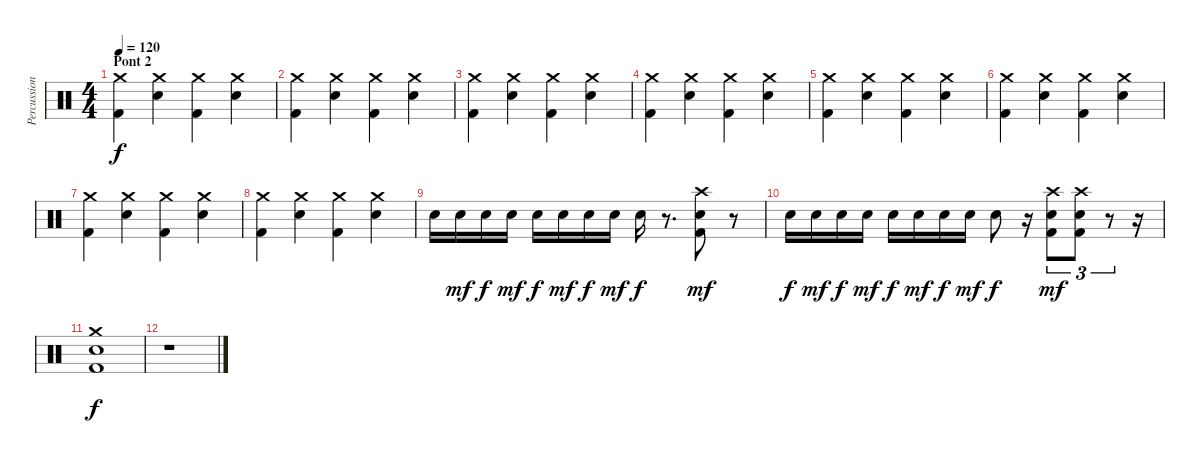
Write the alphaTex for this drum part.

\track ("Percussions" "Percussion") {instrument percussion}
\staff
\articulation defaults
\ts (4 4)
\section ("" "Pont 2")
\tempo 120
\clef neutral
\ks c
("Crash medium (hit)" "Kick (hit) 2").4{dy f} ("Crash medium (hit)" "Electric Snare (hit)").4 ("Crash medium (hit)" "Kick (hit) 2").4 ("Crash medium (hit)" "Electric Snare (hit)").4 |
("Crash medium (hit)" "Kick (hit) 2").4 ("Crash medium (hit)" "Electric Snare (hit)").4 ("Crash medium (hit)" "Kick (hit) 2").4 ("Crash medium (hit)" "Electric Snare (hit)").4 |
("Crash medium (hit)" "Kick (hit) 2").4 ("Crash medium (hit)" "Electric Snare (hit)").4 ("Crash medium (hit)" "Kick (hit) 2").4 ("Crash medium (hit)" "Electric Snare (hit)").4 |
("Crash medium (hit)" "Kick (hit) 2").4 ("Crash medium (hit)" "Electric Snare (hit)").4 ("Crash medium (hit)" "Kick (hit) 2").4 ("Crash medium (hit)" "Electric Snare (hit)").4 |
("Crash medium (hit)" "Kick (hit) 2").4 ("Crash medium (hit)" "Electric Snare (hit)").4 ("Crash medium (hit)" "Kick (hit) 2").4 ("Crash medium (hit)" "Electric Snare (hit)").4 |
("Crash medium (hit)" "Kick (hit) 2").4 ("Crash medium (hit)" "Electric Snare (hit)").4 ("Crash medium (hit)" "Kick (hit) 2").4 ("Crash medium (hit)" "Electric Snare (hit)").4 |
("Crash medium (hit)" "Kick (hit) 2").4 ("Crash medium (hit)" "Electric Snare (hit)").4 ("Crash medium (hit)" "Kick (hit) 2").4 ("Crash medium (hit)" "Electric Snare (hit)").4 |
("Crash medium (hit)" "Kick (hit) 2").4 ("Crash medium (hit)" "Electric Snare (hit)").4 ("Crash medium (hit)" "Kick (hit) 2").4 ("Crash medium (hit)" "Electric Snare (hit)").4 |
"Electric Snare (hit)".16 "Electric Snare (hit)".16{dy mf} "Electric Snare (hit)".16{dy f} "Electric Snare (hit)".16{dy mf} "Electric Snare (hit)".16{dy f} "Electric Snare (hit)".16{dy mf} "Electric Snare (hit)".16{dy f} "Electric Snare (hit)".16{dy mf} "Electric Snare (hit)".16{dy f} r.8{d} ("Crash high (hit)" "Electric Snare (hit)" "Kick (hit) 2").8{dy mf} r.8 |
"Electric Snare (hit)".16{dy f} "Electric Snare (hit)".16{dy mf} "Electric Snare (hit)".16{dy f} "Electric Snare (hit)".16{dy mf} "Electric Snare (hit)".16{dy f} "Electric Snare (hit)".16{dy mf} "Electric Snare (hit)".16{dy f} "Electric Snare (hit)".16{dy mf} "Electric Snare (hit)".8{dy f} r.16 ("Crash high (hit)" "Electric Snare (hit)" "Kick (hit) 2").8{tu (3 2) dy mf} ("Crash high (hit)" "Electric Snare (hit)" "Kick (hit) 2").8{tu (3 2)} r.8{tu (3 2)} r.16 |
("Crash medium (hit)" "Electric Snare (hit)" "Kick (hit) 2").1{dy f} |
r.1
